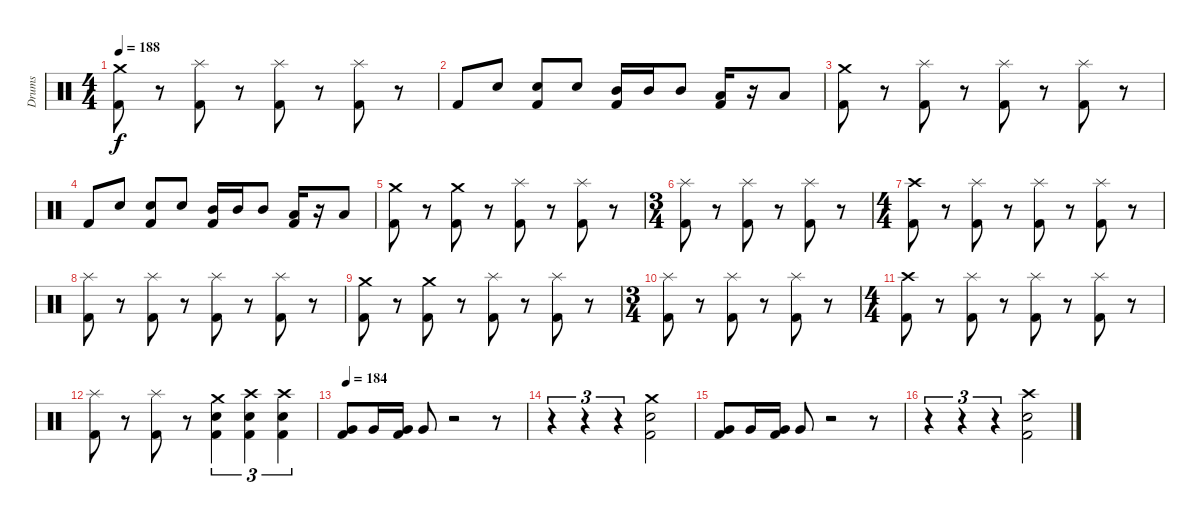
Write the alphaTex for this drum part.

\track ("Drums" "Drums") {instrument percussion}
\staff {score}
\articulation defaults
\ts (4 4)
\tempo 188
\clef neutral
\ks c
("Crash medium (hit)" "Kick (hit) 2").8{dy f} r.8 ("Splash (hit)" "Kick (hit) 2").8 r.8 ("Splash (hit)" "Kick (hit) 2").8 r.8 ("Splash (hit)" "Kick (hit) 2").8 r.8 |
"Kick (hit) 2".8 "Electric Snare (hit)".8 ("Electric Snare (hit)" "Kick (hit) 2").8 "Electric Snare (hit)".8 ("Mid Tom (hit)" "Kick (hit) 2").16 "Mid Tom (hit)".16 "Mid Tom (hit)".8 ("Low Tom (hit)" "Kick (hit) 2").16 r.16 "Low Tom (hit)".8 |
("Crash medium (hit)" "Kick (hit) 2").8 r.8 ("Splash (hit)" "Kick (hit) 2").8 r.8 ("Splash (hit)" "Kick (hit) 2").8 r.8 ("Splash (hit)" "Kick (hit) 2").8 r.8 |
"Kick (hit) 2".8 "Electric Snare (hit)".8 ("Electric Snare (hit)" "Kick (hit) 2").8 "Electric Snare (hit)".8 ("Mid Tom (hit)" "Kick (hit) 2").16 "Mid Tom (hit)".16 "Mid Tom (hit)".8 ("Low Tom (hit)" "Kick (hit) 2").16 r.16 "Low Tom (hit)".8 |
("Crash medium (hit)" "Kick (hit) 2").8 r.8 ("Crash medium (hit)" "Kick (hit) 2").8 r.8 ("Splash (hit)" "Kick (hit) 2").8 r.8 ("Splash (hit)" "Kick (hit) 2").8 r.8 |
\ts (3 4)
("Splash (hit)" "Kick (hit) 2").8 r.8 ("Splash (hit)" "Kick (hit) 2").8 r.8 ("Splash (hit)" "Kick (hit) 2").8 r.8 |
\ts (4 4)
("Crash high (hit)" "Kick (hit) 2").8 r.8 ("Splash (hit)" "Kick (hit) 2").8 r.8 ("Splash (hit)" "Kick (hit) 2").8 r.8 ("Splash (hit)" "Kick (hit) 2").8 r.8 |
("Splash (hit)" "Kick (hit) 2").8 r.8 ("Splash (hit)" "Kick (hit) 2").8 r.8 ("Splash (hit)" "Kick (hit) 2").8 r.8 ("Splash (hit)" "Kick (hit) 2").8 r.8 |
("Crash medium (hit)" "Kick (hit) 2").8 r.8 ("Crash medium (hit)" "Kick (hit) 2").8 r.8 ("Splash (hit)" "Kick (hit) 2").8 r.8 ("Splash (hit)" "Kick (hit) 2").8 r.8 |
\ts (3 4)
("Splash (hit)" "Kick (hit) 2").8 r.8 ("Splash (hit)" "Kick (hit) 2").8 r.8 ("Splash (hit)" "Kick (hit) 2").8 r.8 |
\ts (4 4)
("Crash high (hit)" "Kick (hit) 2").8 r.8 ("Splash (hit)" "Kick (hit) 2").8 r.8 ("Splash (hit)" "Kick (hit) 2").8 r.8 ("Splash (hit)" "Kick (hit) 2").8 r.8 |
("Splash (hit)" "Kick (hit) 2").8 r.8 ("Splash (hit)" "Kick (hit) 2").8 r.8 ("Crash medium (hit)" "Electric Snare (hit)" "Kick (hit) 2").4{tu (3 2)} ("Crash high (hit)" "Electric Snare (hit)" "Kick (hit) 2").4{tu (3 2)} ("Crash high (hit)" "Electric Snare (hit)" "Kick (hit) 2").4{tu (3 2)} |
\tempo 184
("Very Low Tom (hit)" "Kick (hit) 2").8 "Very Low Tom (hit)".16 ("Very Low Tom (hit)" "Kick (hit) 2").16 "Very Low Tom (hit)".8 r.2 r.8 |
r.4{tu (3 2)} r.4{tu (3 2)} r.4{tu (3 2)} ("Crash medium (hit)" "Electric Snare (hit)" "Kick (hit) 2").2 |
("Very Low Tom (hit)" "Kick (hit) 2").8 "Very Low Tom (hit)".16 ("Very Low Tom (hit)" "Kick (hit) 2").16 "Very Low Tom (hit)".8 r.2 r.8 |
r.4{tu (3 2)} r.4{tu (3 2)} r.4{tu (3 2)} ("Crash high (hit)" "Electric Snare (hit)" "Kick (hit) 2").2
